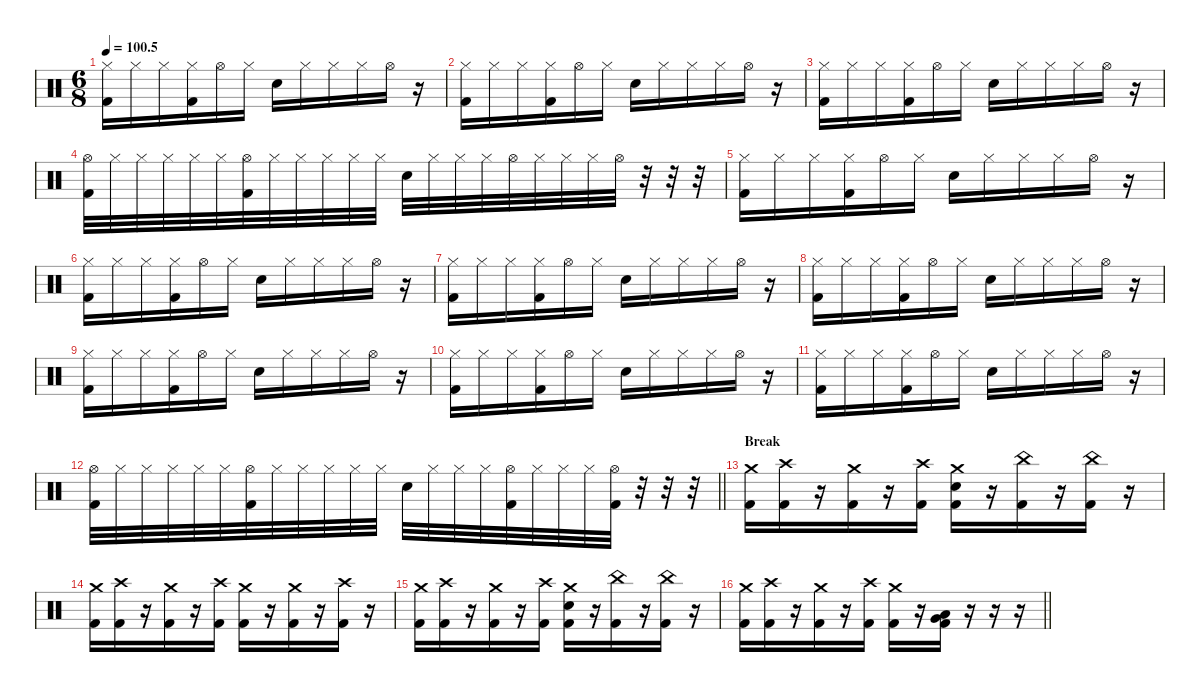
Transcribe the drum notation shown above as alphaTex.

\defaultSystemsLayout 4
\hideDynamics
\bracketExtendMode nobrackets
\singleTrackTrackNamePolicy hidden
\multiTrackTrackNamePolicy hidden
\firstSystemTrackNameMode fullname
\firstSystemTrackNameOrientation horizontal
\otherSystemsTrackNameOrientation horizontal
\track ("Drums" "drm.") {instrument percussion}
\staff {score}
\articulation defaults
\ts (6 8)
\tempo
100.5
\accidentals auto
\clef neutral
\ottava regular
\simile none
\ks c
("Hi-Hat (closed)" "Kick (hit) 2").16{dy f beam Down} "Hi-Hat (closed)".16{beam Down} "Hi-Hat (closed)".16{beam Down} ("Hi-Hat (closed)" "Kick (hit) 2").16{beam Down} "Hi-Hat (open)".16{beam Down} "Hi-Hat (closed)".16{beam Down} "Snare (hit) 2".16{beam Down} "Hi-Hat (closed)".16{beam Down} "Hi-Hat (closed)".16{beam Down} "Hi-Hat (closed)".16{beam Down} "Hi-Hat (open)".16{beam Down} r.16{beam Down} |
("Hi-Hat (closed)" "Kick (hit) 2").16{beam Down} "Hi-Hat (closed)".16{beam Down} "Hi-Hat (closed)".16{beam Down} ("Hi-Hat (closed)" "Kick (hit) 2").16{beam Down} "Hi-Hat (open)".16{beam Down} "Hi-Hat (closed)".16{beam Down} "Snare (hit) 2".16{beam Down} "Hi-Hat (closed)".16{beam Down} "Hi-Hat (closed)".16{beam Down} "Hi-Hat (closed)".16{beam Down} "Hi-Hat (open)".16{beam Down} r.16{beam Down} |
("Hi-Hat (closed)" "Kick (hit) 2").16{beam Down} "Hi-Hat (closed)".16{beam Down} "Hi-Hat (closed)".16{beam Down} ("Hi-Hat (closed)" "Kick (hit) 2").16{beam Down} "Hi-Hat (open)".16{beam Down} "Hi-Hat (closed)".16{beam Down} "Snare (hit) 2".16{beam Down} "Hi-Hat (closed)".16{beam Down} "Hi-Hat (closed)".16{beam Down} "Hi-Hat (closed)".16{beam Down} "Hi-Hat (open)".16{beam Down} r.16{beam Down} |
("Hi-Hat (open)" "Kick (hit) 2").32{beam Down} "Hi-Hat (closed)".32{beam Down} "Hi-Hat (closed)".32{beam Down} "Hi-Hat (closed)".32{beam Down} "Hi-Hat (closed)".32{beam Down} "Hi-Hat (closed)".32{beam Down} ("Hi-Hat (open)" "Kick (hit) 2").32{beam Down} "Hi-Hat (closed)".32{beam Down} "Hi-Hat (closed)".32{beam Down} "Hi-Hat (closed)".32{beam Down} "Hi-Hat (closed)".32{beam Down} "Hi-Hat (closed)".32{beam Down} "Snare (hit) 2".32{beam Down} "Hi-Hat (closed)".32{beam Down} "Hi-Hat (closed)".32{beam Down} "Hi-Hat (closed)".32{beam Down} "Hi-Hat (open)".32{beam Down} "Hi-Hat (closed)".32{beam Down} "Hi-Hat (closed)".32{beam Down} "Hi-Hat (closed)".32{beam Down} "Hi-Hat (open)".32{beam Down} r.32{beam Down} r.32{beam Down} r.32{beam Down} |
("Hi-Hat (closed)" "Kick (hit) 2").16{beam Down} "Hi-Hat (closed)".16{beam Down} "Hi-Hat (closed)".16{beam Down} ("Hi-Hat (closed)" "Kick (hit) 2").16{beam Down} "Hi-Hat (open)".16{beam Down} "Hi-Hat (closed)".16{beam Down} "Snare (hit) 2".16{beam Down} "Hi-Hat (closed)".16{beam Down} "Hi-Hat (closed)".16{beam Down} "Hi-Hat (closed)".16{beam Down} "Hi-Hat (open)".16{beam Down} r.16{beam Down} |
("Hi-Hat (closed)" "Kick (hit) 2").16{beam Down} "Hi-Hat (closed)".16{beam Down} "Hi-Hat (closed)".16{beam Down} ("Hi-Hat (closed)" "Kick (hit) 2").16{beam Down} "Hi-Hat (open)".16{beam Down} "Hi-Hat (closed)".16{beam Down} "Snare (hit) 2".16{beam Down} "Hi-Hat (closed)".16{beam Down} "Hi-Hat (closed)".16{beam Down} "Hi-Hat (closed)".16{beam Down} "Hi-Hat (open)".16{beam Down} r.16{beam Down} |
("Hi-Hat (closed)" "Kick (hit) 2").16{beam Down} "Hi-Hat (closed)".16{beam Down} "Hi-Hat (closed)".16{beam Down} ("Hi-Hat (closed)" "Kick (hit) 2").16{beam Down} "Hi-Hat (open)".16{beam Down} "Hi-Hat (closed)".16{beam Down} "Snare (hit) 2".16{beam Down} "Hi-Hat (closed)".16{beam Down} "Hi-Hat (closed)".16{beam Down} "Hi-Hat (closed)".16{beam Down} "Hi-Hat (open)".16{beam Down} r.16{beam Down} |
("Hi-Hat (closed)" "Kick (hit) 2").16{beam Down} "Hi-Hat (closed)".16{beam Down} "Hi-Hat (closed)".16{beam Down} ("Hi-Hat (closed)" "Kick (hit) 2").16{beam Down} "Hi-Hat (open)".16{beam Down} "Hi-Hat (closed)".16{beam Down} "Snare (hit) 2".16{beam Down} "Hi-Hat (closed)".16{beam Down} "Hi-Hat (closed)".16{beam Down} "Hi-Hat (closed)".16{beam Down} "Hi-Hat (open)".16{beam Down} r.16{beam Down} |
("Hi-Hat (closed)" "Kick (hit) 2").16{beam Down} "Hi-Hat (closed)".16{beam Down} "Hi-Hat (closed)".16{beam Down} ("Hi-Hat (closed)" "Kick (hit) 2").16{beam Down} "Hi-Hat (open)".16{beam Down} "Hi-Hat (closed)".16{beam Down} "Snare (hit) 2".16{beam Down} "Hi-Hat (closed)".16{beam Down} "Hi-Hat (closed)".16{beam Down} "Hi-Hat (closed)".16{beam Down} "Hi-Hat (open)".16{beam Down} r.16{beam Down} |
("Hi-Hat (closed)" "Kick (hit) 2").16{beam Down} "Hi-Hat (closed)".16{beam Down} "Hi-Hat (closed)".16{beam Down} ("Hi-Hat (closed)" "Kick (hit) 2").16{beam Down} "Hi-Hat (open)".16{beam Down} "Hi-Hat (closed)".16{beam Down} "Snare (hit) 2".16{beam Down} "Hi-Hat (closed)".16{beam Down} "Hi-Hat (closed)".16{beam Down} "Hi-Hat (closed)".16{beam Down} "Hi-Hat (open)".16{beam Down} r.16{beam Down} |
("Hi-Hat (closed)" "Kick (hit) 2").16{beam Down} "Hi-Hat (closed)".16{beam Down} "Hi-Hat (closed)".16{beam Down} ("Hi-Hat (closed)" "Kick (hit) 2").16{beam Down} "Hi-Hat (open)".16{beam Down} "Hi-Hat (closed)".16{beam Down} "Snare (hit) 2".16{beam Down} "Hi-Hat (closed)".16{beam Down} "Hi-Hat (closed)".16{beam Down} "Hi-Hat (closed)".16{beam Down} "Hi-Hat (open)".16{beam Down} r.16{beam Down} |
\barLineRight lightlight
("Hi-Hat (open)" "Kick (hit) 2").32{beam Down} "Hi-Hat (closed)".32{beam Down} "Hi-Hat (closed)".32{beam Down} "Hi-Hat (closed)".32{beam Down} "Hi-Hat (closed)".32{beam Down} "Hi-Hat (closed)".32{beam Down} ("Hi-Hat (open)" "Kick (hit) 2").32{beam Down} "Hi-Hat (closed)".32{beam Down} "Hi-Hat (closed)".32{beam Down} "Hi-Hat (closed)".32{beam Down} "Hi-Hat (closed)".32{beam Down} "Hi-Hat (closed)".32{beam Down} "Snare (hit) 2".32{beam Down} "Hi-Hat (closed)".32{beam Down} "Hi-Hat (closed)".32{beam Down} "Hi-Hat (closed)".32{beam Down} ("Hi-Hat (open)" "Kick (hit) 2").32{beam Down} "Hi-Hat (closed)".32{beam Down} "Hi-Hat (closed)".32{beam Down} "Hi-Hat (closed)".32{beam Down} ("Hi-Hat (open)" "Kick (hit) 2").32{beam Down} r.32{beam Down} r.32{beam Down} r.32{beam Down} |
\section ("" "Break")
("Crash medium (hit)" "Kick (hit) 2").16{beam Down} ("Crash high (hit)" "Kick (hit) 2").16{beam Down} r.16{beam Down} ("Crash medium (hit)" "Kick (hit) 2").16{beam Down} r.16{beam Down} ("Crash high (hit)" "Kick (hit) 2").16{beam Down} ("Crash medium (hit)" "Snare (hit) 2" "Kick (hit) 2").16{beam Down} r.16{beam Down} ("China (hit)" "Kick (hit) 2").16{beam Down} r.16{beam Down} ("China (hit)" "Kick (hit) 2").16{beam Down} r.16{beam Down} |
("Crash medium (hit)" "Kick (hit) 2").16{beam Down} ("Crash high (hit)" "Kick (hit) 2").16{beam Down} r.16{beam Down} ("Crash medium (hit)" "Kick (hit) 2").16{beam Down} r.16{beam Down} ("Crash high (hit)" "Kick (hit) 2").16{beam Down} ("Crash medium (hit)" "Kick (hit) 2").16{beam Down} r.16{beam Down} ("Crash medium (hit)" "Kick (hit) 2").16{beam Down} r.16{beam Down} ("Crash high (hit)" "Kick (hit) 2").16{beam Down} r.16{beam Down} |
("Crash medium (hit)" "Kick (hit) 2").16{beam Down} ("Crash high (hit)" "Kick (hit) 2").16{beam Down} r.16{beam Down} ("Crash medium (hit)" "Kick (hit) 2").16{beam Down} r.16{beam Down} ("Crash high (hit)" "Kick (hit) 2").16{beam Down} ("Crash medium (hit)" "Snare (hit) 2" "Kick (hit) 2").16{beam Down} r.16{beam Down} ("China (hit)" "Kick (hit) 2").16{beam Down} r.16{beam Down} ("China (hit)" "Kick (hit) 2").16{beam Down} r.16{beam Down} |
\barLineRight lightlight
("Crash medium (hit)" "Kick (hit) 2").16{beam Down} ("Crash high (hit)" "Kick (hit) 2").16{beam Down} r.16{beam Down} ("Crash medium (hit)" "Kick (hit) 2").16{beam Down} r.16{beam Down} ("Crash high (hit)" "Kick (hit) 2").16{beam Down} ("Crash medium (hit)" "Kick (hit) 2").16{beam Down} r.16{beam Down} ("Very Low Tom (hit)" "Low Tom (hit)" "Kick (hit) 2").16{beam Down} r.16{beam Down} r.16{beam Down} r.16{beam Down}
